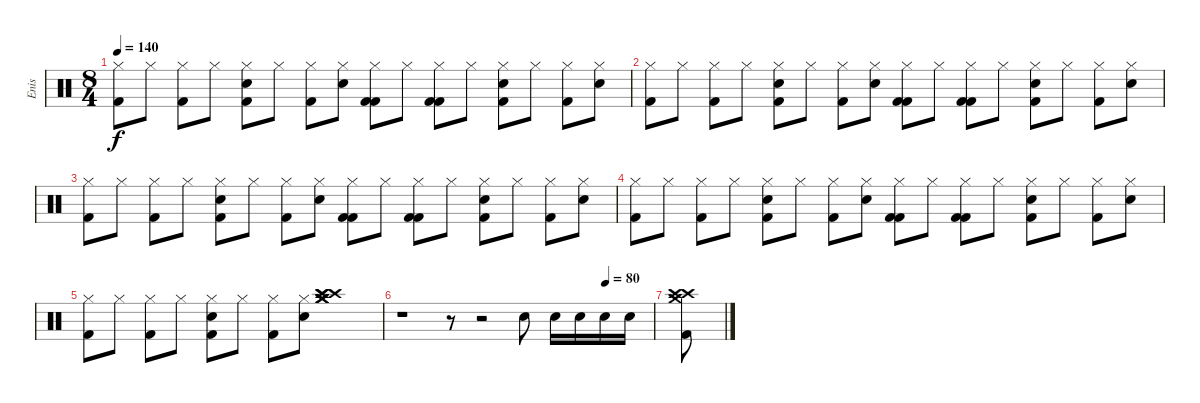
\track ("Enis" "Enis") {instrument percussion}
\staff {score}
\articulation defaults
\ts (8 4)
\tempo 140
\clef neutral
\ks c
("Kick (hit) 2" "Hi-Hat (closed)").8{dy f} "Hi-Hat (closed)".8 ("Hi-Hat (closed)" "Kick (hit) 2").8 "Hi-Hat (closed)".8 ("Snare (hit) 2" "Hi-Hat (closed)" "Kick (hit) 2").8 "Hi-Hat (closed)".8 ("Hi-Hat (closed)" "Kick (hit) 2").8 ("Snare (hit) 2" "Hi-Hat (closed)").8 ("Hi-Hat (closed)" "Kick (hit) 2" "Kick (hit) 2").8 "Hi-Hat (closed)".8 ("Kick (hit) 2" "Hi-Hat (closed)" "Kick (hit) 2").8 "Hi-Hat (closed)".8 ("Snare (hit) 2" "Hi-Hat (closed)" "Kick (hit) 2").8 "Hi-Hat (closed)".8 ("Hi-Hat (closed)" "Kick (hit) 2").8 ("Snare (hit) 2" "Hi-Hat (closed)").8 |
("Kick (hit) 2" "Hi-Hat (closed)").8 "Hi-Hat (closed)".8 ("Hi-Hat (closed)" "Kick (hit) 2").8 "Hi-Hat (closed)".8 ("Snare (hit) 2" "Hi-Hat (closed)" "Kick (hit) 2").8 "Hi-Hat (closed)".8 ("Hi-Hat (closed)" "Kick (hit) 2").8 ("Snare (hit) 2" "Hi-Hat (closed)").8 ("Hi-Hat (closed)" "Kick (hit) 2" "Kick (hit) 2").8 "Hi-Hat (closed)".8 ("Kick (hit) 2" "Hi-Hat (closed)" "Kick (hit) 2").8 "Hi-Hat (closed)".8 ("Snare (hit) 2" "Hi-Hat (closed)" "Kick (hit) 2").8 "Hi-Hat (closed)".8 ("Hi-Hat (closed)" "Kick (hit) 2").8 ("Snare (hit) 2" "Hi-Hat (closed)").8 |
("Kick (hit) 2" "Hi-Hat (closed)").8 "Hi-Hat (closed)".8 ("Hi-Hat (closed)" "Kick (hit) 2").8 "Hi-Hat (closed)".8 ("Snare (hit) 2" "Hi-Hat (closed)" "Kick (hit) 2").8 "Hi-Hat (closed)".8 ("Hi-Hat (closed)" "Kick (hit) 2").8 ("Snare (hit) 2" "Hi-Hat (closed)").8 ("Hi-Hat (closed)" "Kick (hit) 2" "Kick (hit) 2").8 "Hi-Hat (closed)".8 ("Kick (hit) 2" "Hi-Hat (closed)" "Kick (hit) 2").8 "Hi-Hat (closed)".8 ("Snare (hit) 2" "Hi-Hat (closed)" "Kick (hit) 2").8 "Hi-Hat (closed)".8 ("Hi-Hat (closed)" "Kick (hit) 2").8 ("Snare (hit) 2" "Hi-Hat (closed)").8 |
("Kick (hit) 2" "Hi-Hat (closed)").8 "Hi-Hat (closed)".8 ("Hi-Hat (closed)" "Kick (hit) 2").8 "Hi-Hat (closed)".8 ("Snare (hit) 2" "Hi-Hat (closed)" "Kick (hit) 2").8 "Hi-Hat (closed)".8 ("Hi-Hat (closed)" "Kick (hit) 2").8 ("Snare (hit) 2" "Hi-Hat (closed)").8 ("Hi-Hat (closed)" "Kick (hit) 2" "Kick (hit) 2").8 "Hi-Hat (closed)".8 ("Kick (hit) 2" "Hi-Hat (closed)" "Kick (hit) 2").8 "Hi-Hat (closed)".8 ("Snare (hit) 2" "Hi-Hat (closed)" "Kick (hit) 2").8 "Hi-Hat (closed)".8 ("Hi-Hat (closed)" "Kick (hit) 2").8 ("Snare (hit) 2" "Hi-Hat (closed)").8 |
("Kick (hit) 2" "Hi-Hat (closed)").8 "Hi-Hat (closed)".8 ("Hi-Hat (closed)" "Kick (hit) 2").8 "Hi-Hat (closed)".8 ("Snare (hit) 2" "Hi-Hat (closed)" "Kick (hit) 2").8 "Hi-Hat (closed)".8 ("Hi-Hat (closed)" "Kick (hit) 2").8 ("Snare (hit) 2" "Hi-Hat (closed)").8 ("Crash high (hit)" "Crash high (hit)" "Crash medium (hit)" "Crash high (hit)" "Crash medium (hit)" "Crash medium (hit)").1 |
\tempo (80 0.8125)
r.1 r.8 r.2 "Snare (hit) 2".8 "Snare (hit) 2".16 "Snare (hit) 2".16 "Snare (hit) 2".16 "Snare (hit) 2".16 |
("Kick (hit) 2" "Crash high (hit)" "Crash high (hit)" "Crash medium (hit)").8
